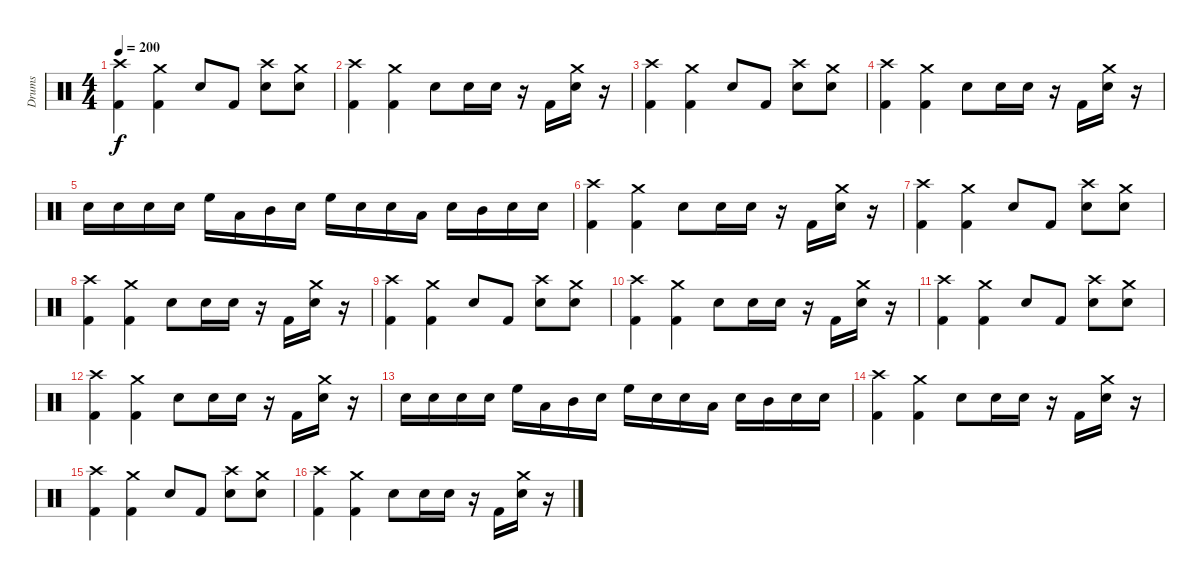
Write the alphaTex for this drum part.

\track ("Drums" "Drums") {instrument percussion}
\staff {score}
\articulation defaults
\ts (4 4)
\tempo 200
\clef neutral
\ks c
("Crash high (hit)" "Kick (hit) 2").4{dy f} ("Crash medium (hit)" "Kick (hit) 2").4 "Electric Snare (hit)".8 "Kick (hit) 2".8 ("Electric Snare (hit)" "Crash high (hit)").8 ("Electric Snare (hit)" "Crash medium (hit)").8 |
("Crash high (hit)" "Kick (hit) 2").4 ("Crash medium (hit)" "Kick (hit) 2").4 "Electric Snare (hit)".8 "Electric Snare (hit)".16 "Electric Snare (hit)".16 r.16 "Kick (hit) 2".16 ("Electric Snare (hit)" "Crash medium (hit)").16 r.16 |
("Crash high (hit)" "Kick (hit) 2").4 ("Crash medium (hit)" "Kick (hit) 2").4 "Electric Snare (hit)".8 "Kick (hit) 2".8 ("Electric Snare (hit)" "Crash high (hit)").8 ("Electric Snare (hit)" "Crash medium (hit)").8 |
("Crash high (hit)" "Kick (hit) 2").4 ("Crash medium (hit)" "Kick (hit) 2").4 "Electric Snare (hit)".8 "Electric Snare (hit)".16 "Electric Snare (hit)".16 r.16 "Kick (hit) 2".16 ("Electric Snare (hit)" "Crash medium (hit)").16 r.16 |
"Electric Snare (hit)".16 "Electric Snare (hit)".16 "Electric Snare (hit)".16 "Electric Snare (hit)".16 "High Floor Tom (hit)".16 "Low Tom (hit)".16 "Mid Tom (hit)".16 "Electric Snare (hit)".16 "High Floor Tom (hit)".16 "Electric Snare (hit)".16 "Electric Snare (hit)".16 "Low Tom (hit)".16 "Electric Snare (hit)".16 "Mid Tom (hit)".16 "Electric Snare (hit)".16 "Electric Snare (hit)".16 |
("Crash high (hit)" "Kick (hit) 2").4 ("Crash medium (hit)" "Kick (hit) 2").4 "Electric Snare (hit)".8 "Electric Snare (hit)".16 "Electric Snare (hit)".16 r.16 "Kick (hit) 2".16 ("Electric Snare (hit)" "Crash medium (hit)").16 r.16 |
("Crash high (hit)" "Kick (hit) 2").4 ("Crash medium (hit)" "Kick (hit) 2").4 "Electric Snare (hit)".8 "Kick (hit) 2".8 ("Electric Snare (hit)" "Crash high (hit)").8 ("Electric Snare (hit)" "Crash medium (hit)").8 |
("Crash high (hit)" "Kick (hit) 2").4 ("Crash medium (hit)" "Kick (hit) 2").4 "Electric Snare (hit)".8 "Electric Snare (hit)".16 "Electric Snare (hit)".16 r.16 "Kick (hit) 2".16 ("Electric Snare (hit)" "Crash medium (hit)").16 r.16 |
("Crash high (hit)" "Kick (hit) 2").4 ("Crash medium (hit)" "Kick (hit) 2").4 "Electric Snare (hit)".8 "Kick (hit) 2".8 ("Electric Snare (hit)" "Crash high (hit)").8 ("Electric Snare (hit)" "Crash medium (hit)").8 |
("Crash high (hit)" "Kick (hit) 2").4 ("Crash medium (hit)" "Kick (hit) 2").4 "Electric Snare (hit)".8 "Electric Snare (hit)".16 "Electric Snare (hit)".16 r.16 "Kick (hit) 2".16 ("Electric Snare (hit)" "Crash medium (hit)").16 r.16 |
("Crash high (hit)" "Kick (hit) 2").4 ("Crash medium (hit)" "Kick (hit) 2").4 "Electric Snare (hit)".8 "Kick (hit) 2".8 ("Electric Snare (hit)" "Crash high (hit)").8 ("Electric Snare (hit)" "Crash medium (hit)").8 |
("Crash high (hit)" "Kick (hit) 2").4 ("Crash medium (hit)" "Kick (hit) 2").4 "Electric Snare (hit)".8 "Electric Snare (hit)".16 "Electric Snare (hit)".16 r.16 "Kick (hit) 2".16 ("Electric Snare (hit)" "Crash medium (hit)").16 r.16 |
"Electric Snare (hit)".16 "Electric Snare (hit)".16 "Electric Snare (hit)".16 "Electric Snare (hit)".16 "High Floor Tom (hit)".16 "Low Tom (hit)".16 "Mid Tom (hit)".16 "Electric Snare (hit)".16 "High Floor Tom (hit)".16 "Electric Snare (hit)".16 "Electric Snare (hit)".16 "Low Tom (hit)".16 "Electric Snare (hit)".16 "Mid Tom (hit)".16 "Electric Snare (hit)".16 "Electric Snare (hit)".16 |
("Crash high (hit)" "Kick (hit) 2").4 ("Crash medium (hit)" "Kick (hit) 2").4 "Electric Snare (hit)".8 "Electric Snare (hit)".16 "Electric Snare (hit)".16 r.16 "Kick (hit) 2".16 ("Electric Snare (hit)" "Crash medium (hit)").16 r.16 |
("Crash high (hit)" "Kick (hit) 2").4 ("Crash medium (hit)" "Kick (hit) 2").4 "Electric Snare (hit)".8 "Kick (hit) 2".8 ("Electric Snare (hit)" "Crash high (hit)").8 ("Electric Snare (hit)" "Crash medium (hit)").8 |
("Crash high (hit)" "Kick (hit) 2").4 ("Crash medium (hit)" "Kick (hit) 2").4 "Electric Snare (hit)".8 "Electric Snare (hit)".16 "Electric Snare (hit)".16 r.16 "Kick (hit) 2".16 ("Electric Snare (hit)" "Crash medium (hit)").16 r.16
